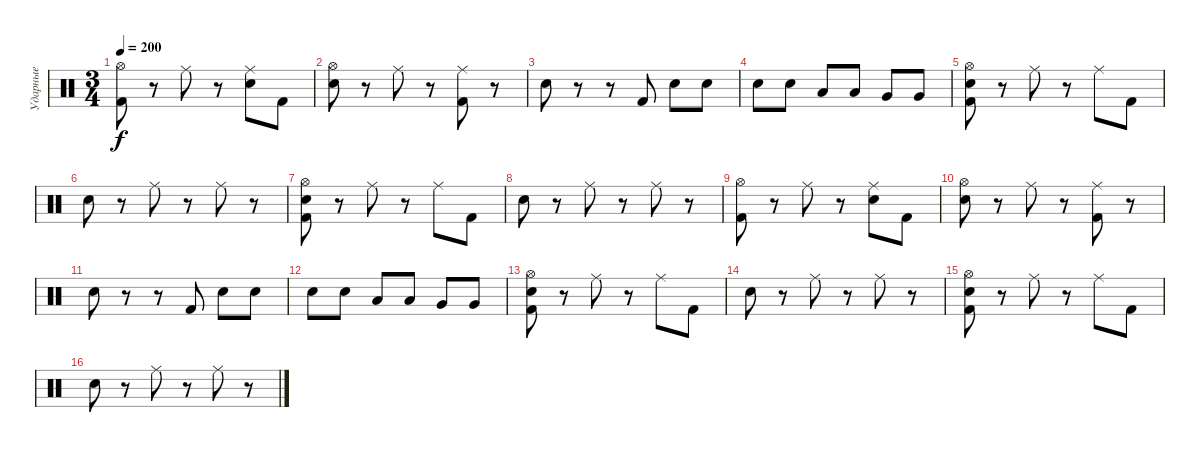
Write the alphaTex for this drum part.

\track ("Ударные" "Ударные") {instrument percussion}
\staff {score}
\articulation defaults
\ts (3 4)
\tempo 200
\clef neutral
\ks c
("Hi-Hat (open)" "Kick (hit) 2").8{dy f} r.8 "Ride (middle)".8 r.8 ("Ride (middle)" "Electric Snare (hit)").8 "Kick (hit) 2".8 |
("Hi-Hat (open)" "Electric Snare (hit)").8 r.8 "Ride (middle)".8 r.8 ("Ride (middle)" "Kick (hit) 2").8 r.8 |
"Electric Snare (hit)".8 r.8 r.8 "Kick (hit) 2".8 "Electric Snare (hit)".8 "Electric Snare (hit)".8 |
"Electric Snare (hit)".8 "Electric Snare (hit)".8 "Low Tom (hit)".8 "Low Tom (hit)".8 "Very Low Tom (hit)".8 "Very Low Tom (hit)".8 |
("Hi-Hat (open)" "Electric Snare (hit)" "Kick (hit) 2").8 r.8 "Ride (middle)".8 r.8 "Ride (middle)".8 "Kick (hit) 2".8 |
"Electric Snare (hit)".8 r.8 "Ride (middle)".8 r.8 "Ride (middle)".8 r.8 |
("Hi-Hat (open)" "Electric Snare (hit)" "Kick (hit) 2").8 r.8 "Ride (middle)".8 r.8 "Ride (middle)".8 "Kick (hit) 2".8 |
"Electric Snare (hit)".8 r.8 "Ride (middle)".8 r.8 "Ride (middle)".8 r.8 |
("Hi-Hat (open)" "Kick (hit) 2").8 r.8 "Ride (middle)".8 r.8 ("Ride (middle)" "Electric Snare (hit)").8 "Kick (hit) 2".8 |
("Hi-Hat (open)" "Electric Snare (hit)").8 r.8 "Ride (middle)".8 r.8 ("Ride (middle)" "Kick (hit) 2").8 r.8 |
"Electric Snare (hit)".8 r.8 r.8 "Kick (hit) 2".8 "Electric Snare (hit)".8 "Electric Snare (hit)".8 |
"Electric Snare (hit)".8 "Electric Snare (hit)".8 "Low Tom (hit)".8 "Low Tom (hit)".8 "Very Low Tom (hit)".8 "Very Low Tom (hit)".8 |
("Hi-Hat (open)" "Electric Snare (hit)" "Kick (hit) 2").8 r.8 "Ride (middle)".8 r.8 "Ride (middle)".8 "Kick (hit) 2".8 |
"Electric Snare (hit)".8 r.8 "Ride (middle)".8 r.8 "Ride (middle)".8 r.8 |
("Hi-Hat (open)" "Electric Snare (hit)" "Kick (hit) 2").8 r.8 "Ride (middle)".8 r.8 "Ride (middle)".8 "Kick (hit) 2".8 |
"Electric Snare (hit)".8 r.8 "Ride (middle)".8 r.8 "Ride (middle)".8 r.8
